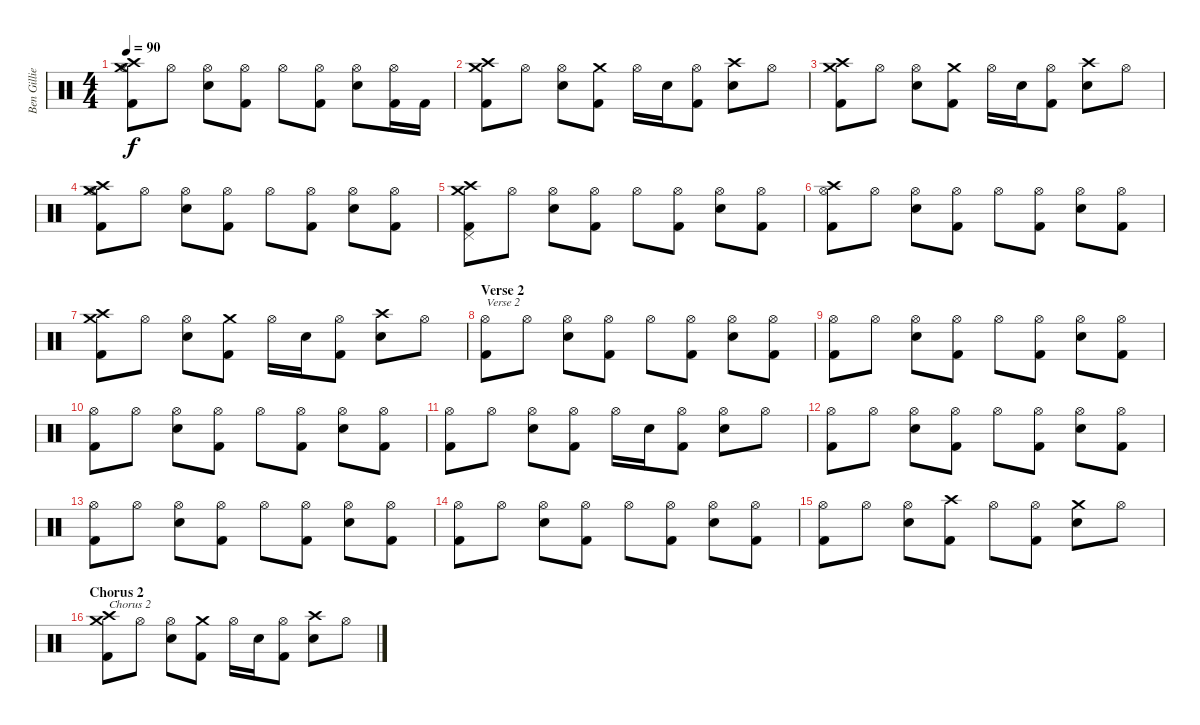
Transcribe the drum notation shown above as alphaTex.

\track ("Ben Gillies" "Ben Gillie") {instrument percussion}
\staff {score}
\articulation defaults
\ts (4 4)
\tempo 90
\clef neutral
\ks c
("Crash high (hit)" "Hi-Hat (open)" "Crash medium (hit)" "Kick (hit) 2").8{dy f} "Hi-Hat (open)".8 ("Hi-Hat (open)" "Electric Snare (hit)").8 ("Hi-Hat (open)" "Kick (hit) 2").8 "Hi-Hat (open)".8 ("Hi-Hat (open)" "Kick (hit) 2").8 ("Hi-Hat (open)" "Electric Snare (hit)").8 ("Hi-Hat (open)" "Kick (hit) 2").16 "Kick (hit) 2".16 |
("Crash high (hit)" "Crash medium (hit)" "Kick (hit) 2").8 "Hi-Hat (open)".8 ("Hi-Hat (open)" "Electric Snare (hit)").8 ("Crash medium (hit)" "Kick (hit) 2").8 "Hi-Hat (open)".16 "Electric Snare (hit)".16 ("Hi-Hat (open)" "Kick (hit) 2").8 ("Crash high (hit)" "Electric Snare (hit)").8 "Hi-Hat (open)".8 |
("Crash high (hit)" "Crash medium (hit)" "Kick (hit) 2").8 "Hi-Hat (open)".8 ("Hi-Hat (open)" "Electric Snare (hit)").8 ("Crash medium (hit)" "Kick (hit) 2").8 "Hi-Hat (open)".16 "Electric Snare (hit)".16 ("Hi-Hat (open)" "Kick (hit) 2").8 ("Crash high (hit)" "Electric Snare (hit)").8 "Hi-Hat (open)".8 |
("Crash high (hit)" "Hi-Hat (open)" "Crash medium (hit)" "Kick (hit) 2").8 "Hi-Hat (open)".8 ("Hi-Hat (open)" "Electric Snare (hit)").8 ("Hi-Hat (open)" "Kick (hit) 2").8 "Hi-Hat (open)".8 ("Hi-Hat (open)" "Kick (hit) 2").8 ("Hi-Hat (open)" "Electric Snare (hit)").8 ("Hi-Hat (open)" "Kick (hit) 2").8 |
("Crash high (hit)" "Pedal Hi-Hat (hit)" "Crash medium (hit)" "Kick (hit) 2").8 "Hi-Hat (open)".8 ("Hi-Hat (open)" "Electric Snare (hit)").8 ("Hi-Hat (open)" "Kick (hit) 2").8 "Hi-Hat (open)".8 ("Hi-Hat (open)" "Kick (hit) 2").8 ("Hi-Hat (open)" "Electric Snare (hit)").8 ("Hi-Hat (open)" "Kick (hit) 2").8 |
("Crash high (hit)" "Hi-Hat (open)" "Kick (hit) 2").8 "Hi-Hat (open)".8 ("Hi-Hat (open)" "Electric Snare (hit)").8 ("Hi-Hat (open)" "Kick (hit) 2").8 "Hi-Hat (open)".8 ("Hi-Hat (open)" "Kick (hit) 2").8 ("Hi-Hat (open)" "Electric Snare (hit)").8 ("Hi-Hat (open)" "Kick (hit) 2").8 |
("Crash high (hit)" "Crash medium (hit)" "Kick (hit) 2").8 "Hi-Hat (open)".8 ("Hi-Hat (open)" "Electric Snare (hit)").8 ("Crash medium (hit)" "Kick (hit) 2").8 "Hi-Hat (open)".16 "Electric Snare (hit)".16 ("Hi-Hat (open)" "Kick (hit) 2").8 ("Crash high (hit)" "Electric Snare (hit)").8 "Hi-Hat (open)".8 |
\section ("" "Verse 2")
("Hi-Hat (open)" "Kick (hit) 2").8{txt "Verse 2"} "Hi-Hat (open)".8 ("Hi-Hat (open)" "Electric Snare (hit)").8 ("Hi-Hat (open)" "Kick (hit) 2").8 "Hi-Hat (open)".8 ("Hi-Hat (open)" "Kick (hit) 2").8 ("Hi-Hat (open)" "Electric Snare (hit)").8 ("Hi-Hat (open)" "Kick (hit) 2").8 |
("Hi-Hat (open)" "Kick (hit) 2").8 "Hi-Hat (open)".8 ("Hi-Hat (open)" "Electric Snare (hit)").8 ("Hi-Hat (open)" "Kick (hit) 2").8 "Hi-Hat (open)".8 ("Hi-Hat (open)" "Kick (hit) 2").8 ("Hi-Hat (open)" "Electric Snare (hit)").8 ("Hi-Hat (open)" "Kick (hit) 2").8 |
("Hi-Hat (open)" "Kick (hit) 2").8 "Hi-Hat (open)".8 ("Hi-Hat (open)" "Electric Snare (hit)").8 ("Hi-Hat (open)" "Kick (hit) 2").8 "Hi-Hat (open)".8 ("Hi-Hat (open)" "Kick (hit) 2").8 ("Hi-Hat (open)" "Electric Snare (hit)").8 ("Hi-Hat (open)" "Kick (hit) 2").8 |
("Hi-Hat (open)" "Kick (hit) 2").8 "Hi-Hat (open)".8 ("Hi-Hat (open)" "Electric Snare (hit)").8 ("Hi-Hat (open)" "Kick (hit) 2").8 "Hi-Hat (open)".16 "Electric Snare (hit)".16 ("Hi-Hat (open)" "Kick (hit) 2").8 ("Hi-Hat (open)" "Electric Snare (hit)").8 "Hi-Hat (open)".8 |
("Hi-Hat (open)" "Kick (hit) 2").8 "Hi-Hat (open)".8 ("Hi-Hat (open)" "Electric Snare (hit)").8 ("Hi-Hat (open)" "Kick (hit) 2").8 "Hi-Hat (open)".8 ("Hi-Hat (open)" "Kick (hit) 2").8 ("Hi-Hat (open)" "Electric Snare (hit)").8 ("Hi-Hat (open)" "Kick (hit) 2").8 |
("Hi-Hat (open)" "Kick (hit) 2").8 "Hi-Hat (open)".8 ("Hi-Hat (open)" "Electric Snare (hit)").8 ("Hi-Hat (open)" "Kick (hit) 2").8 "Hi-Hat (open)".8 ("Hi-Hat (open)" "Kick (hit) 2").8 ("Hi-Hat (open)" "Electric Snare (hit)").8 ("Hi-Hat (open)" "Kick (hit) 2").8 |
("Hi-Hat (open)" "Kick (hit) 2").8 "Hi-Hat (open)".8 ("Hi-Hat (open)" "Electric Snare (hit)").8 ("Hi-Hat (open)" "Kick (hit) 2").8 "Hi-Hat (open)".8 ("Hi-Hat (open)" "Kick (hit) 2").8 ("Hi-Hat (open)" "Electric Snare (hit)").8 ("Hi-Hat (open)" "Kick (hit) 2").8 |
("Hi-Hat (open)" "Kick (hit) 2").8 "Hi-Hat (open)".8 ("Hi-Hat (open)" "Electric Snare (hit)").8 ("Crash high (hit)" "Kick (hit) 2").8 "Hi-Hat (open)".8 ("Hi-Hat (open)" "Kick (hit) 2").8 ("Crash medium (hit)" "Electric Snare (hit)").8 "Hi-Hat (open)".8 |
\section ("" "Chorus 2")
("Crash high (hit)" "Crash medium (hit)" "Kick (hit) 2").8{txt "Chorus 2"} "Hi-Hat (open)".8 ("Hi-Hat (open)" "Electric Snare (hit)").8 ("Crash medium (hit)" "Kick (hit) 2").8 "Hi-Hat (open)".16 "Electric Snare (hit)".16 ("Hi-Hat (open)" "Kick (hit) 2").8 ("Crash high (hit)" "Electric Snare (hit)").8 "Hi-Hat (open)".8
